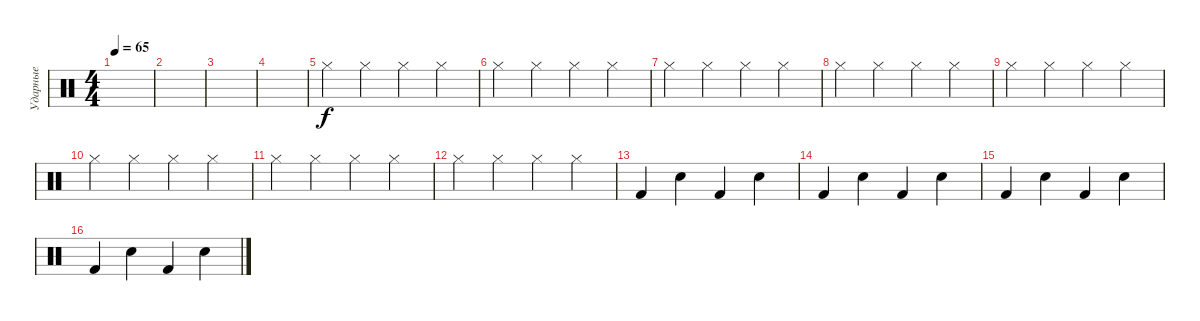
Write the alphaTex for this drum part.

\track ("Ударные" "Ударные") {instrument percussion}
\staff {score}
\articulation defaults
\ts (4 4)
\tempo 65
\clef neutral
\ks c
|
|
|
|
"Hi-Hat (closed)".4 "Hi-Hat (closed)".4 "Hi-Hat (closed)".4 "Hi-Hat (closed)".4 |
"Hi-Hat (closed)".4 "Hi-Hat (closed)".4 "Hi-Hat (closed)".4 "Hi-Hat (closed)".4 |
"Hi-Hat (closed)".4 "Hi-Hat (closed)".4 "Hi-Hat (closed)".4 "Hi-Hat (closed)".4 |
"Hi-Hat (closed)".4 "Hi-Hat (closed)".4 "Hi-Hat (closed)".4 "Hi-Hat (closed)".4 |
"Hi-Hat (closed)".4 "Hi-Hat (closed)".4 "Hi-Hat (closed)".4 "Hi-Hat (closed)".4 |
"Hi-Hat (closed)".4 "Hi-Hat (closed)".4 "Hi-Hat (closed)".4 "Hi-Hat (closed)".4 |
"Hi-Hat (closed)".4 "Hi-Hat (closed)".4 "Hi-Hat (closed)".4 "Hi-Hat (closed)".4 |
"Hi-Hat (closed)".4 "Hi-Hat (closed)".4 "Hi-Hat (closed)".4 "Hi-Hat (closed)".4 |
"Kick (hit) 2".4 "Snare (hit) 2".4 "Kick (hit) 2".4 "Snare (hit) 2".4 |
"Kick (hit) 2".4 "Snare (hit) 2".4 "Kick (hit) 2".4 "Snare (hit) 2".4 |
"Kick (hit) 2".4 "Snare (hit) 2".4 "Kick (hit) 2".4 "Snare (hit) 2".4 |
"Kick (hit) 2".4 "Snare (hit) 2".4 "Kick (hit) 2".4 "Snare (hit) 2".4
